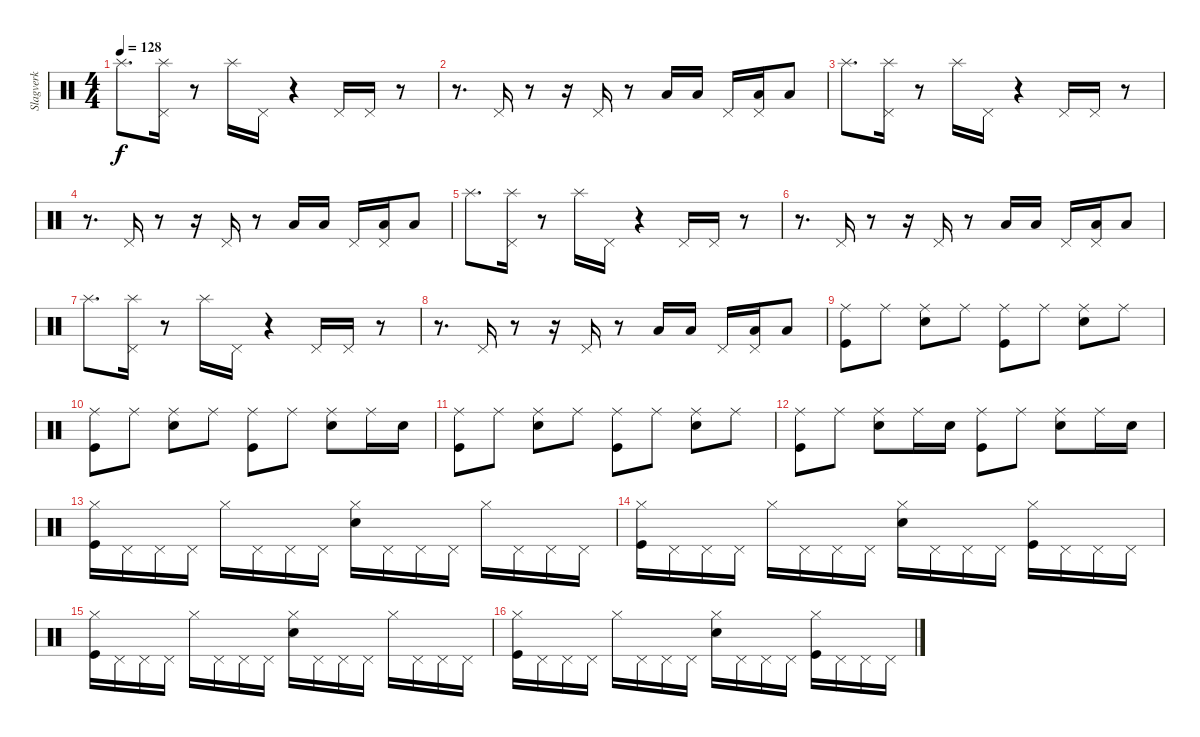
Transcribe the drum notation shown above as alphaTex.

\track ("Slagverk" "Slagverk") {instrument percussion}
\staff {score}
\articulation defaults
\ts (4 4)
\tempo 128
\clef neutral
\ks c "Splash (hit)".8{d dy f}
("Pedal Hi-Hat (hit)" "Splash (hit)").16 r.8 "Splash (hit)".16 "Pedal Hi-Hat (hit)".16 r.4 "Pedal Hi-Hat (hit)".16 "Pedal Hi-Hat (hit)".16 r.8 |
r.8{d} "Pedal Hi-Hat (hit)".16 r.8 r.16 "Pedal Hi-Hat (hit)".16 r.8 "Low Floor Tom (hit)".16 "Low Floor Tom (hit)".16 "Pedal Hi-Hat (hit)".16 ("Low Floor Tom (hit)" "Pedal Hi-Hat (hit)").16 "Low Floor Tom (hit)".8 |
"Splash (hit)".8{d} ("Pedal Hi-Hat (hit)" "Splash (hit)").16 r.8 "Splash (hit)".16 "Pedal Hi-Hat (hit)".16 r.4 "Pedal Hi-Hat (hit)".16 "Pedal Hi-Hat (hit)".16 r.8 |
r.8{d} "Pedal Hi-Hat (hit)".16 r.8 r.16 "Pedal Hi-Hat (hit)".16 r.8 "Low Floor Tom (hit)".16 "Low Floor Tom (hit)".16 "Pedal Hi-Hat (hit)".16 ("Low Floor Tom (hit)" "Pedal Hi-Hat (hit)").16 "Low Floor Tom (hit)".8 |
"Splash (hit)".8{d} ("Pedal Hi-Hat (hit)" "Splash (hit)").16 r.8 "Splash (hit)".16 "Pedal Hi-Hat (hit)".16 r.4 "Pedal Hi-Hat (hit)".16 "Pedal Hi-Hat (hit)".16 r.8 |
r.8{d} "Pedal Hi-Hat (hit)".16 r.8 r.16 "Pedal Hi-Hat (hit)".16 r.8 "Low Floor Tom (hit)".16 "Low Floor Tom (hit)".16 "Pedal Hi-Hat (hit)".16 ("Low Floor Tom (hit)" "Pedal Hi-Hat (hit)").16 "Low Floor Tom (hit)".8 |
"Splash (hit)".8{d} ("Pedal Hi-Hat (hit)" "Splash (hit)").16 r.8 "Splash (hit)".16 "Pedal Hi-Hat (hit)".16 r.4 "Pedal Hi-Hat (hit)".16 "Pedal Hi-Hat (hit)".16 r.8 |
r.8{d} "Pedal Hi-Hat (hit)".16 r.8 r.16 "Pedal Hi-Hat (hit)".16 r.8 "Low Floor Tom (hit)".16 "Low Floor Tom (hit)".16 "Pedal Hi-Hat (hit)".16 ("Low Floor Tom (hit)" "Pedal Hi-Hat (hit)").16 "Low Floor Tom (hit)".8 |
("Kick (hit)" "Ride (middle)").8 "Ride (middle)".8 ("Snare (hit) 2" "Ride (middle)").8 "Ride (middle)".8 ("Kick (hit)" "Ride (middle)").8 "Ride (middle)".8 ("Snare (hit) 2" "Ride (middle)").8 "Ride (middle)".8 |
("Kick (hit)" "Ride (middle)").8 "Ride (middle)".8 ("Snare (hit) 2" "Ride (middle)").8 "Ride (middle)".8 ("Kick (hit)" "Ride (middle)").8 "Ride (middle)".8 ("Snare (hit) 2" "Ride (middle)").8 "Ride (middle)".16 "Snare (hit) 2".16 |
("Kick (hit)" "Ride (middle)").8 "Ride (middle)".8 ("Snare (hit) 2" "Ride (middle)").8 "Ride (middle)".8 ("Kick (hit)" "Ride (middle)").8 "Ride (middle)".8 ("Snare (hit) 2" "Ride (middle)").8 "Ride (middle)".8 |
("Kick (hit)" "Ride (middle)").8 "Ride (middle)".8 ("Snare (hit) 2" "Ride (middle)").8 "Ride (middle)".16 "Snare (hit) 2".16 ("Kick (hit)" "Ride (middle)").8 "Ride (middle)".8 ("Snare (hit) 2" "Ride (middle)").8 "Ride (middle)".16 "Snare (hit) 2".16 |
("Kick (hit)" "Hi-Hat (closed)").16 "Pedal Hi-Hat (hit)".16 "Pedal Hi-Hat (hit)".16 "Pedal Hi-Hat (hit)".16 "Hi-Hat (closed)".16 "Pedal Hi-Hat (hit)".16 "Pedal Hi-Hat (hit)".16 "Pedal Hi-Hat (hit)".16 ("Snare (hit) 2" "Hi-Hat (closed)").16 "Pedal Hi-Hat (hit)".16 "Pedal Hi-Hat (hit)".16 "Pedal Hi-Hat (hit)".16 "Hi-Hat (closed)".16 "Pedal Hi-Hat (hit)".16 "Pedal Hi-Hat (hit)".16 "Pedal Hi-Hat (hit)".16 |
("Kick (hit)" "Hi-Hat (closed)").16 "Pedal Hi-Hat (hit)".16 "Pedal Hi-Hat (hit)".16 "Pedal Hi-Hat (hit)".16 "Hi-Hat (closed)".16 "Pedal Hi-Hat (hit)".16 "Pedal Hi-Hat (hit)".16 "Pedal Hi-Hat (hit)".16 ("Snare (hit) 2" "Hi-Hat (closed)").16 "Pedal Hi-Hat (hit)".16 "Pedal Hi-Hat (hit)".16 "Pedal Hi-Hat (hit)".16 ("Kick (hit)" "Hi-Hat (closed)").16 "Pedal Hi-Hat (hit)".16 "Pedal Hi-Hat (hit)".16 "Pedal Hi-Hat (hit)".16 |
("Kick (hit)" "Hi-Hat (closed)").16 "Pedal Hi-Hat (hit)".16 "Pedal Hi-Hat (hit)".16 "Pedal Hi-Hat (hit)".16 "Hi-Hat (closed)".16 "Pedal Hi-Hat (hit)".16 "Pedal Hi-Hat (hit)".16 "Pedal Hi-Hat (hit)".16 ("Snare (hit) 2" "Hi-Hat (closed)").16 "Pedal Hi-Hat (hit)".16 "Pedal Hi-Hat (hit)".16 "Pedal Hi-Hat (hit)".16 "Hi-Hat (closed)".16 "Pedal Hi-Hat (hit)".16 "Pedal Hi-Hat (hit)".16 "Pedal Hi-Hat (hit)".16 |
("Kick (hit)" "Hi-Hat (closed)").16 "Pedal Hi-Hat (hit)".16 "Pedal Hi-Hat (hit)".16 "Pedal Hi-Hat (hit)".16 "Hi-Hat (closed)".16 "Pedal Hi-Hat (hit)".16 "Pedal Hi-Hat (hit)".16 "Pedal Hi-Hat (hit)".16 ("Snare (hit) 2" "Hi-Hat (closed)").16 "Pedal Hi-Hat (hit)".16 "Pedal Hi-Hat (hit)".16 "Pedal Hi-Hat (hit)".16 ("Kick (hit)" "Hi-Hat (closed)").16 "Pedal Hi-Hat (hit)".16 "Pedal Hi-Hat (hit)".16 "Pedal Hi-Hat (hit)".16
